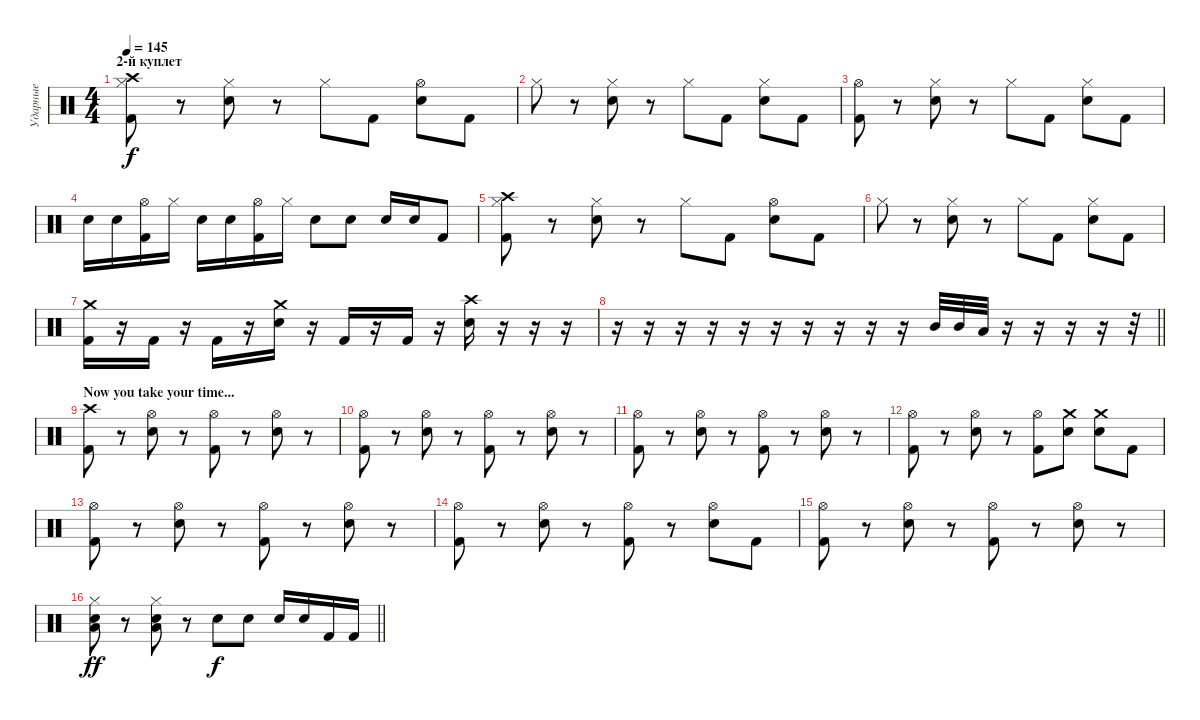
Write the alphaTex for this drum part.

\track ("Ударные" "Ударные") {instrument percussion bank 127}
\staff
\articulation defaults
\ts (4 4)
\section ("" "2-й куплет")
\tempo 145
\clef neutral
\ks c
("Crash high (hit)" "Kick (hit) 2" "Hi-Hat (closed)").8{dy f} r.8 ("Snare (hit) 2" "Hi-Hat (closed)").8 r.8 "Hi-Hat (closed)".8 "Kick (hit) 2".8 ("Snare (hit) 2" "Hi-Hat (open)").8 "Kick (hit) 2".8 |
"Hi-Hat (closed)".8 r.8 ("Hi-Hat (closed)" "Snare (hit) 2").8 r.8 "Hi-Hat (closed)".8 "Kick (hit) 2".8 ("Hi-Hat (closed)" "Snare (hit) 2").8 "Kick (hit) 2".8 |
("Hi-Hat (open)" "Kick (hit) 2").8 r.8 ("Hi-Hat (closed)" "Snare (hit) 2").8 r.8 "Hi-Hat (closed)".8 "Kick (hit) 2".8 ("Hi-Hat (closed)" "Snare (hit) 2").8 "Kick (hit) 2".8 |
"Snare (hit) 2".16 "Snare (hit) 2".16 ("Hi-Hat (open)" "Kick (hit) 2").16 "Hi-Hat (closed)".16 "Snare (hit) 2".16 "Snare (hit) 2".16 ("Hi-Hat (open)" "Kick (hit) 2").16 "Hi-Hat (closed)".16 "Snare (hit) 2".8 "Snare (hit) 2".8 "Snare (hit) 2".16 "Snare (hit) 2".16 "Kick (hit) 2".8 |
("Crash high (hit)" "Kick (hit) 2" "Hi-Hat (closed)").8 r.8 ("Snare (hit) 2" "Hi-Hat (closed)").8 r.8 "Hi-Hat (closed)".8 "Kick (hit) 2".8 ("Snare (hit) 2" "Hi-Hat (open)").8 "Kick (hit) 2".8 |
"Hi-Hat (closed)".8 r.8 ("Hi-Hat (closed)" "Snare (hit) 2").8 r.8 "Hi-Hat (closed)".8 "Kick (hit) 2".8 ("Hi-Hat (closed)" "Snare (hit) 2").8 "Kick (hit) 2".8 |
("Crash medium (hit)" "Kick (hit) 2").16 r.16 "Kick (hit) 2".16 r.16 "Kick (hit) 2".16 r.16 ("Crash medium (hit)" "Snare (hit) 2").16 r.16 "Kick (hit) 2".16 r.16 "Kick (hit) 2".16 r.16 ("Crash high (hit)" "Snare (hit) 2").16 r.16 r.16 r.16 |
\barLineRight lightlight
r.16 r.16 r.16 r.16 r.16 r.16 r.16 r.16 r.16 r.16 "Mid Tom (hit)".32 "Mid Tom (hit)".32 "Low Tom (hit)".32 r.16 r.16 r.16 r.16 r.32 |
\section ("" "Now you take your time...")
("Kick (hit) 2" "Crash high (hit)").8 r.8 ("Snare (hit) 2" "Hi-Hat (open)").8 r.8 ("Kick (hit) 2" "Hi-Hat (open)").8 r.8 ("Snare (hit) 2" "Hi-Hat (open)").8 r.8 |
("Kick (hit) 2" "Hi-Hat (open)").8 r.8 ("Snare (hit) 2" "Hi-Hat (open)").8 r.8 ("Kick (hit) 2" "Hi-Hat (open)").8 r.8 ("Snare (hit) 2" "Hi-Hat (open)").8 r.8 |
("Kick (hit) 2" "Hi-Hat (open)").8 r.8 ("Snare (hit) 2" "Hi-Hat (open)").8 r.8 ("Kick (hit) 2" "Hi-Hat (open)").8 r.8 ("Snare (hit) 2" "Hi-Hat (open)").8 r.8 |
("Kick (hit) 2" "Hi-Hat (open)").8 r.8 ("Snare (hit) 2" "Hi-Hat (open)").8 r.8 ("Kick (hit) 2" "Hi-Hat (open)").8 ("Snare (hit) 2" "Crash medium (hit)").8 ("Snare (hit) 2" "Crash medium (hit)").8 "Kick (hit) 2".8 |
("Kick (hit) 2" "Hi-Hat (open)").8 r.8 ("Snare (hit) 2" "Hi-Hat (open)").8 r.8 ("Kick (hit) 2" "Hi-Hat (open)").8 r.8 ("Snare (hit) 2" "Hi-Hat (open)").8 r.8 |
("Kick (hit) 2" "Hi-Hat (open)").8 r.8 ("Snare (hit) 2" "Hi-Hat (open)").8 r.8 ("Kick (hit) 2" "Hi-Hat (open)").8 r.8 ("Snare (hit) 2" "Hi-Hat (open)").8 "Kick (hit) 2".8 |
("Kick (hit) 2" "Hi-Hat (open)").8 r.8 ("Snare (hit) 2" "Hi-Hat (open)").8 r.8 ("Kick (hit) 2" "Hi-Hat (open)").8 r.8 ("Snare (hit) 2" "Hi-Hat (open)").8 r.8 |
\barLineRight lightlight
("Hi-Hat (closed)" "Low Tom (hit)" "Snare (hit) 2").8{dy ff} r.8 ("Hi-Hat (closed)" "Low Tom (hit)" "Snare (hit) 2").8 r.8 "Snare (hit) 2".8{dy f} "Snare (hit) 2".8 "Snare (hit) 2".16 "Snare (hit) 2".16 "Kick (hit) 2".16 "Kick (hit) 2".16
